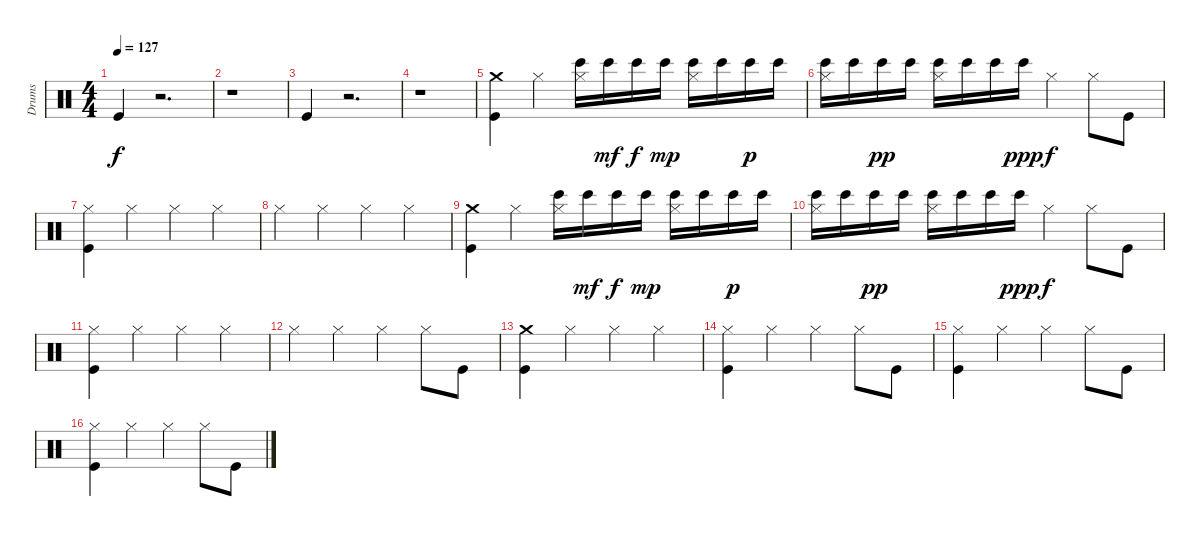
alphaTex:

\track ("Drums" "Drums") {instrument percussion}
\staff {score}
\articulation defaults
\ts (4 4)
\tempo 127
\clef neutral
\ks c "Kick (hit)".4{dy f}
r.2{d} |
r.1 |
"Kick (hit)".4 r.2{d} |
r.1 |
("Crash medium (hit)" "Kick (hit)").4 "Hi-Hat (closed)".4 ("Hi-Hat (closed)" "Bongo High (hit)").16 "Bongo High (hit)".16{dy mf} "Bongo High (hit)".16{dy f} "Bongo High (hit)".16{dy mp} ("Hi-Hat (closed)" "Bongo High (hit)").16 "Bongo High (hit)".16 "Bongo High (hit)".16{dy p} "Bongo High (hit)".16 |
("Hi-Hat (closed)" "Bongo High (hit)").16 "Bongo High (hit)".16 "Bongo High (hit)".16{dy pp} "Bongo High (hit)".16 ("Hi-Hat (closed)" "Bongo High (hit)").16 "Bongo High (hit)".16 "Bongo High (hit)".16 "Bongo High (hit)".16{dy ppp} "Hi-Hat (closed)".4{dy f} "Hi-Hat (closed)".8 "Kick (hit)".8 |
("Kick (hit)" "Hi-Hat (closed)").4 "Hi-Hat (closed)".4 "Hi-Hat (closed)".4 "Hi-Hat (closed)".4 |
"Hi-Hat (closed)".4 "Hi-Hat (closed)".4 "Hi-Hat (closed)".4 "Hi-Hat (closed)".4 |
("Crash medium (hit)" "Kick (hit)").4 "Hi-Hat (closed)".4 ("Hi-Hat (closed)" "Bongo High (hit)").16 "Bongo High (hit)".16{dy mf} "Bongo High (hit)".16{dy f} "Bongo High (hit)".16{dy mp} ("Hi-Hat (closed)" "Bongo High (hit)").16 "Bongo High (hit)".16 "Bongo High (hit)".16{dy p} "Bongo High (hit)".16 |
("Hi-Hat (closed)" "Bongo High (hit)").16 "Bongo High (hit)".16 "Bongo High (hit)".16{dy pp} "Bongo High (hit)".16 ("Hi-Hat (closed)" "Bongo High (hit)").16 "Bongo High (hit)".16 "Bongo High (hit)".16 "Bongo High (hit)".16{dy ppp} "Hi-Hat (closed)".4{dy f} "Hi-Hat (closed)".8 "Kick (hit)".8 |
("Kick (hit)" "Hi-Hat (closed)").4 "Hi-Hat (closed)".4 "Hi-Hat (closed)".4 "Hi-Hat (closed)".4 |
"Hi-Hat (closed)".4 "Hi-Hat (closed)".4 "Hi-Hat (closed)".4 "Hi-Hat (closed)".8 "Kick (hit)".8 |
("Crash medium (hit)" "Kick (hit)").4 "Hi-Hat (closed)".4 "Hi-Hat (closed)".4 "Hi-Hat (closed)".4 |
("Kick (hit)" "Hi-Hat (closed)").4 "Hi-Hat (closed)".4 "Hi-Hat (closed)".4 "Hi-Hat (closed)".8 "Kick (hit)".8 |
("Kick (hit)" "Hi-Hat (closed)").4 "Hi-Hat (closed)".4 "Hi-Hat (closed)".4 "Hi-Hat (closed)".8 "Kick (hit)".8 |
("Kick (hit)" "Hi-Hat (closed)").4 "Hi-Hat (closed)".4 "Hi-Hat (closed)".4 "Hi-Hat (closed)".8 "Kick (hit)".8
